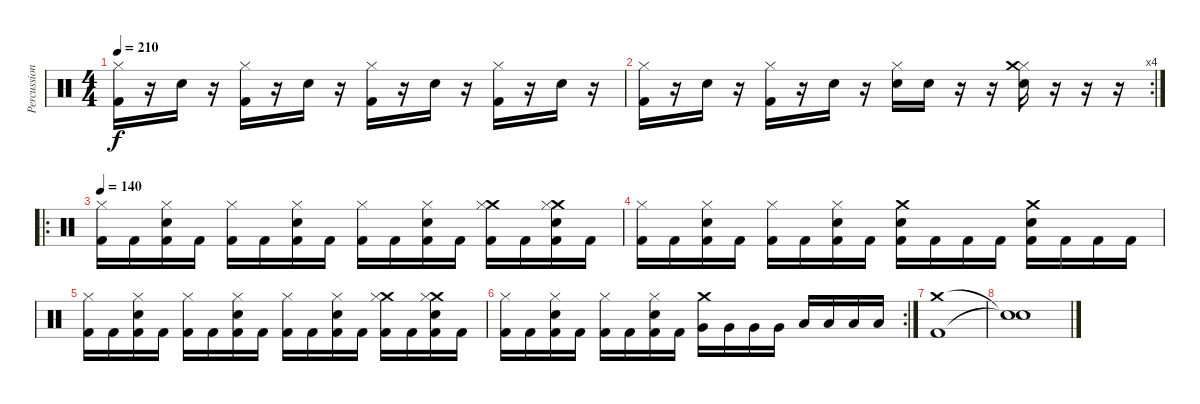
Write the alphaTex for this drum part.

\track ("Percussion" "Percussion") {instrument percussion}
\staff {score}
\articulation defaults
\ts (4 4)
\tempo 210
\clef neutral
\ks c
("Hi-Hat (closed)" "Kick (hit) 2").16{dy f} r.16 "Snare (hit) 2".16 r.16 ("Hi-Hat (closed)" "Kick (hit) 2").16 r.16 "Snare (hit) 2".16 r.16 ("Hi-Hat (closed)" "Kick (hit) 2").16 r.16 "Snare (hit) 2".16 r.16 ("Hi-Hat (closed)" "Kick (hit) 2").16 r.16 "Snare (hit) 2".16 r.16 |
\rc 4
("Hi-Hat (closed)" "Kick (hit) 2").16 r.16 "Snare (hit) 2".16 r.16 ("Hi-Hat (closed)" "Kick (hit) 2").16 r.16 "Snare (hit) 2".16 r.16 ("Hi-Hat (closed)" "Snare (hit) 2").16 "Snare (hit) 2".16 r.16 r.16 ("Hi-Hat (closed)" "Crash medium (hit)" "Snare (hit) 2").16 r.16 r.16 r.16 |
\ro
\tempo 140
("Hi-Hat (closed)" "Kick (hit) 2").16 "Kick (hit) 2".16 ("Hi-Hat (closed)" "Snare (hit) 2" "Kick (hit) 2").16 "Kick (hit) 2".16 ("Hi-Hat (closed)" "Kick (hit) 2").16 "Kick (hit) 2".16 ("Hi-Hat (closed)" "Snare (hit) 2" "Kick (hit) 2").16 "Kick (hit) 2".16 ("Hi-Hat (closed)" "Kick (hit) 2").16 "Kick (hit) 2".16 ("Hi-Hat (closed)" "Snare (hit) 2" "Kick (hit) 2").16 "Kick (hit) 2".16 ("Crash medium (hit)" "Hi-Hat (closed)" "Kick (hit) 2").16 "Kick (hit) 2".16 ("Crash medium (hit)" "Hi-Hat (closed)" "Snare (hit) 2" "Kick (hit) 2").16 "Kick (hit) 2".16 |
("Hi-Hat (closed)" "Kick (hit) 2").16 "Kick (hit) 2".16 ("Hi-Hat (closed)" "Snare (hit) 2" "Kick (hit) 2").16 "Kick (hit) 2".16 ("Hi-Hat (closed)" "Kick (hit) 2").16 "Kick (hit) 2".16 ("Hi-Hat (closed)" "Snare (hit) 2" "Kick (hit) 2").16 "Kick (hit) 2".16 ("Crash medium (hit)" "Snare (hit) 2" "Kick (hit) 2").16 "Kick (hit) 2".16 "Kick (hit) 2".16 "Kick (hit) 2".16 ("Snare (hit) 2" "Kick (hit) 2" "Crash medium (hit)").16 "Kick (hit) 2".16 "Kick (hit) 2".16 "Kick (hit) 2".16 |
("Hi-Hat (closed)" "Kick (hit) 2").16 "Kick (hit) 2".16 ("Hi-Hat (closed)" "Snare (hit) 2" "Kick (hit) 2").16 "Kick (hit) 2".16 ("Hi-Hat (closed)" "Kick (hit) 2").16 "Kick (hit) 2".16 ("Hi-Hat (closed)" "Snare (hit) 2" "Kick (hit) 2").16 "Kick (hit) 2".16 ("Hi-Hat (closed)" "Kick (hit) 2").16 "Kick (hit) 2".16 ("Hi-Hat (closed)" "Snare (hit) 2" "Kick (hit) 2").16 "Kick (hit) 2".16 ("Crash medium (hit)" "Hi-Hat (closed)" "Kick (hit) 2").16 "Kick (hit) 2".16 ("Crash medium (hit)" "Hi-Hat (closed)" "Snare (hit) 2" "Kick (hit) 2").16 "Kick (hit) 2".16 |
\rc 2
("Hi-Hat (closed)" "Kick (hit) 2").16 "Kick (hit) 2".16 ("Hi-Hat (closed)" "Snare (hit) 2" "Kick (hit) 2").16 "Kick (hit) 2".16 ("Hi-Hat (closed)" "Kick (hit) 2").16 "Kick (hit) 2".16 ("Hi-Hat (closed)" "Snare (hit) 2" "Kick (hit) 2").16 "Kick (hit) 2".16 ("Crash medium (hit)" "Very Low Tom (hit)").16 "Very Low Tom (hit)".16 "Very Low Tom (hit)".16 "Very Low Tom (hit)".16 "Low Floor Tom (hit)".16 "Low Floor Tom (hit)".16 "Low Floor Tom (hit)".16 "Low Floor Tom (hit)".16 |
("Crash medium (hit)" "Kick (hit) 2").1 |
("Snare (hit)"{t} "Snare (hit)"{t}).1
